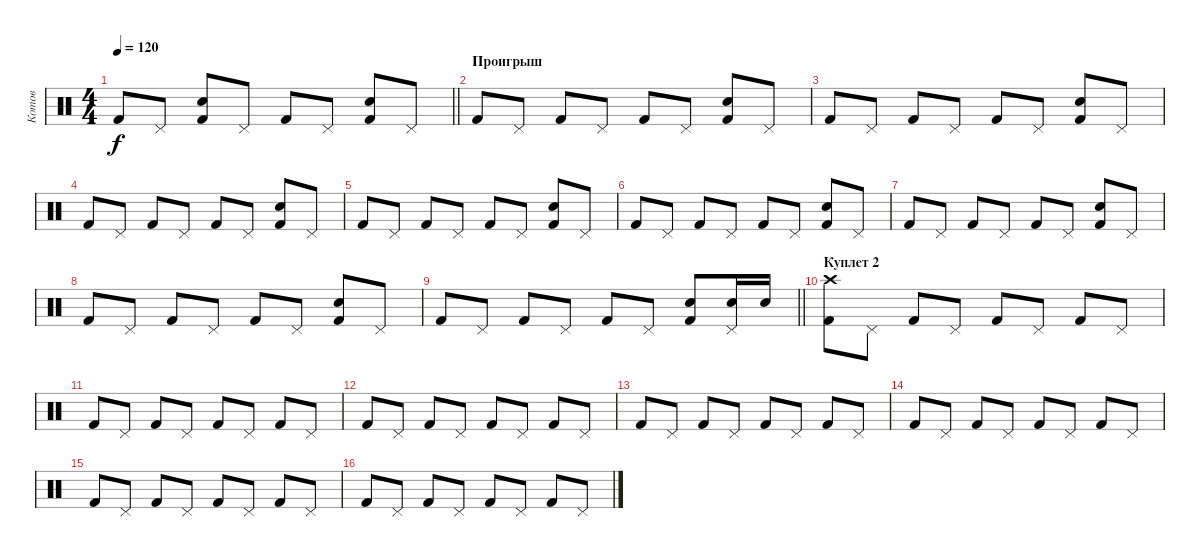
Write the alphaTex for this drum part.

\track ("Котов" "Котов") {instrument percussion}
\staff {score}
\articulation defaults
\ts (4 4)
\tempo 120
\clef neutral
\barLineRight lightlight
\ks c "Kick (hit) 2".8{dy f} "Pedal Hi-Hat (hit)".8
("Kick (hit) 2" "Snare (hit) 2").8 "Pedal Hi-Hat (hit)".8 "Kick (hit) 2".8 "Pedal Hi-Hat (hit)".8 ("Kick (hit) 2" "Snare (hit) 2").8 "Pedal Hi-Hat (hit)".8 |
\section ("" "Проигрыш")
"Kick (hit) 2".8 "Pedal Hi-Hat (hit)".8 "Kick (hit) 2".8 "Pedal Hi-Hat (hit)".8 "Kick (hit) 2".8 "Pedal Hi-Hat (hit)".8 ("Kick (hit) 2" "Snare (hit) 2").8 "Pedal Hi-Hat (hit)".8 |
"Kick (hit) 2".8 "Pedal Hi-Hat (hit)".8 "Kick (hit) 2".8 "Pedal Hi-Hat (hit)".8 "Kick (hit) 2".8 "Pedal Hi-Hat (hit)".8 ("Kick (hit) 2" "Snare (hit) 2").8 "Pedal Hi-Hat (hit)".8 |
"Kick (hit) 2".8 "Pedal Hi-Hat (hit)".8 "Kick (hit) 2".8 "Pedal Hi-Hat (hit)".8 "Kick (hit) 2".8 "Pedal Hi-Hat (hit)".8 ("Kick (hit) 2" "Snare (hit) 2").8 "Pedal Hi-Hat (hit)".8 |
"Kick (hit) 2".8 "Pedal Hi-Hat (hit)".8 "Kick (hit) 2".8 "Pedal Hi-Hat (hit)".8 "Kick (hit) 2".8 "Pedal Hi-Hat (hit)".8 ("Kick (hit) 2" "Snare (hit) 2").8 "Pedal Hi-Hat (hit)".8 |
"Kick (hit) 2".8 "Pedal Hi-Hat (hit)".8 "Kick (hit) 2".8 "Pedal Hi-Hat (hit)".8 "Kick (hit) 2".8 "Pedal Hi-Hat (hit)".8 ("Kick (hit) 2" "Snare (hit) 2").8 "Pedal Hi-Hat (hit)".8 |
"Kick (hit) 2".8 "Pedal Hi-Hat (hit)".8 "Kick (hit) 2".8 "Pedal Hi-Hat (hit)".8 "Kick (hit) 2".8 "Pedal Hi-Hat (hit)".8 ("Kick (hit) 2" "Snare (hit) 2").8 "Pedal Hi-Hat (hit)".8 |
"Kick (hit) 2".8 "Pedal Hi-Hat (hit)".8 "Kick (hit) 2".8 "Pedal Hi-Hat (hit)".8 "Kick (hit) 2".8 "Pedal Hi-Hat (hit)".8 ("Kick (hit) 2" "Snare (hit) 2").8 "Pedal Hi-Hat (hit)".8 |
\barLineRight lightlight "Kick (hit) 2".8 "Pedal Hi-Hat (hit)".8 "Kick (hit) 2".8 "Pedal Hi-Hat (hit)".8 "Kick (hit) 2".8 "Pedal Hi-Hat (hit)".8
("Kick (hit) 2" "Snare (hit) 2").8 ("Pedal Hi-Hat (hit)" "Snare (hit) 2").16 "Snare (hit) 2".16 |
\section ("" "Куплет 2")
("Kick (hit) 2" "Crash high (hit)").8 "Pedal Hi-Hat (hit)".8 "Kick (hit) 2".8 "Pedal Hi-Hat (hit)".8 "Kick (hit) 2".8 "Pedal Hi-Hat (hit)".8 "Kick (hit) 2".8 "Pedal Hi-Hat (hit)".8 |
"Kick (hit) 2".8 "Pedal Hi-Hat (hit)".8 "Kick (hit) 2".8 "Pedal Hi-Hat (hit)".8 "Kick (hit) 2".8 "Pedal Hi-Hat (hit)".8 "Kick (hit) 2".8 "Pedal Hi-Hat (hit)".8 |
"Kick (hit) 2".8 "Pedal Hi-Hat (hit)".8 "Kick (hit) 2".8 "Pedal Hi-Hat (hit)".8 "Kick (hit) 2".8 "Pedal Hi-Hat (hit)".8 "Kick (hit) 2".8 "Pedal Hi-Hat (hit)".8 |
"Kick (hit) 2".8 "Pedal Hi-Hat (hit)".8 "Kick (hit) 2".8 "Pedal Hi-Hat (hit)".8 "Kick (hit) 2".8 "Pedal Hi-Hat (hit)".8 "Kick (hit) 2".8 "Pedal Hi-Hat (hit)".8 |
"Kick (hit) 2".8 "Pedal Hi-Hat (hit)".8 "Kick (hit) 2".8 "Pedal Hi-Hat (hit)".8 "Kick (hit) 2".8 "Pedal Hi-Hat (hit)".8 "Kick (hit) 2".8 "Pedal Hi-Hat (hit)".8 |
"Kick (hit) 2".8 "Pedal Hi-Hat (hit)".8 "Kick (hit) 2".8 "Pedal Hi-Hat (hit)".8 "Kick (hit) 2".8 "Pedal Hi-Hat (hit)".8 "Kick (hit) 2".8 "Pedal Hi-Hat (hit)".8 |
"Kick (hit) 2".8 "Pedal Hi-Hat (hit)".8 "Kick (hit) 2".8 "Pedal Hi-Hat (hit)".8 "Kick (hit) 2".8 "Pedal Hi-Hat (hit)".8 "Kick (hit) 2".8 "Pedal Hi-Hat (hit)".8
